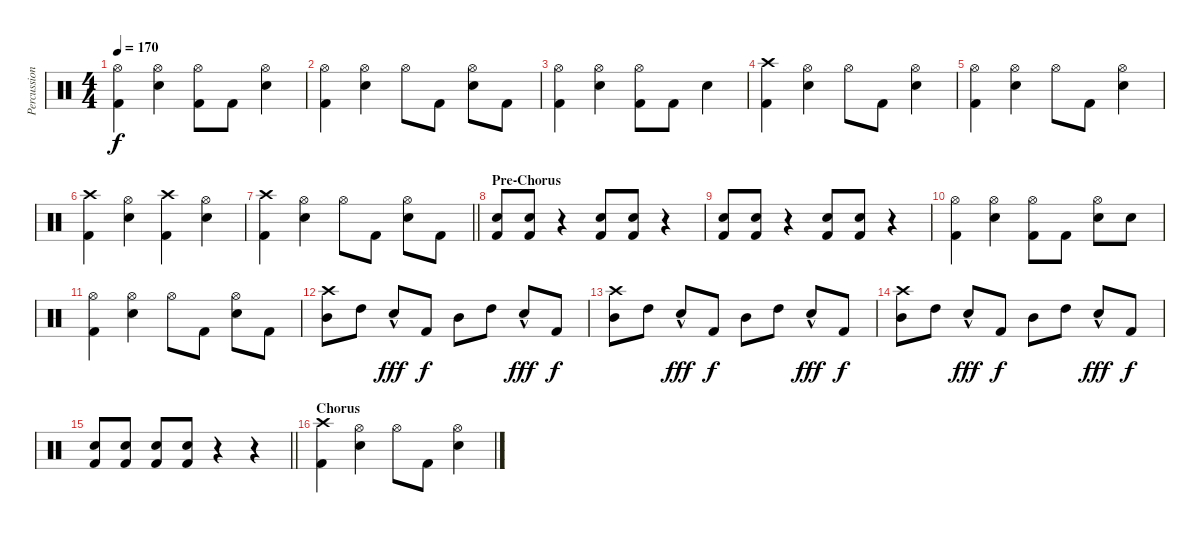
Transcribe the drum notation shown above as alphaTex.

\track ("Percussion" "Percussion") {instrument percussion}
\staff {score}
\articulation defaults
\ts (4 4)
\tempo 170
\clef neutral
\ks c
("Hi-Hat (open)" "Kick (hit) 2").4{dy f} ("Hi-Hat (open)" "Snare (hit) 2").4 ("Hi-Hat (open)" "Kick (hit) 2").8 "Kick (hit) 2".8 ("Hi-Hat (open)" "Snare (hit) 2").4 |
("Hi-Hat (open)" "Kick (hit) 2").4 ("Hi-Hat (open)" "Snare (hit) 2").4 "Hi-Hat (open)".8 "Kick (hit) 2".8 ("Hi-Hat (open)" "Snare (hit) 2").8 "Kick (hit) 2".8 |
("Hi-Hat (open)" "Kick (hit) 2").4 ("Hi-Hat (open)" "Snare (hit) 2").4 ("Hi-Hat (open)" "Kick (hit) 2").8 "Kick (hit) 2".8 "Snare (hit) 2".4 |
("Crash high (hit)" "Kick (hit) 2").4 ("Hi-Hat (open)" "Snare (hit) 2").4 "Hi-Hat (open)".8 "Kick (hit) 2".8 ("Hi-Hat (open)" "Snare (hit) 2").4 |
("Hi-Hat (open)" "Kick (hit) 2").4 ("Hi-Hat (open)" "Snare (hit) 2").4 "Hi-Hat (open)".8 "Kick (hit) 2".8 ("Hi-Hat (open)" "Snare (hit) 2").4 |
("Crash high (hit)" "Kick (hit) 2").4 ("Hi-Hat (open)" "Snare (hit) 2").4 ("Crash high (hit)" "Kick (hit) 2").4 ("Hi-Hat (open)" "Snare (hit) 2").4 |
\barLineRight lightlight
("Crash high (hit)" "Kick (hit) 2").4 ("Hi-Hat (open)" "Snare (hit) 2").4 "Hi-Hat (open)".8 "Kick (hit) 2".8 ("Hi-Hat (open)" "Snare (hit) 2").8 "Kick (hit) 2".8 |
\section ("" "Pre-Chorus")
("Snare (hit) 2" "Kick (hit) 2").8 ("Snare (hit) 2" "Kick (hit) 2").8 r.4 ("Snare (hit) 2" "Kick (hit) 2").8 ("Snare (hit) 2" "Kick (hit) 2").8 r.4 |
("Snare (hit) 2" "Kick (hit) 2").8 ("Snare (hit) 2" "Kick (hit) 2").8 r.4 ("Snare (hit) 2" "Kick (hit) 2").8 ("Snare (hit) 2" "Kick (hit) 2").8 r.4 |
("Hi-Hat (open)" "Kick (hit) 2").4 ("Hi-Hat (open)" "Snare (hit) 2").4 ("Hi-Hat (open)" "Kick (hit) 2").8 "Kick (hit) 2".8 ("Hi-Hat (open)" "Snare (hit) 2").8 "Snare (hit) 2".8 |
("Hi-Hat (open)" "Kick (hit) 2").4 ("Hi-Hat (open)" "Snare (hit) 2").4 "Hi-Hat (open)".8 "Kick (hit) 2".8 ("Hi-Hat (open)" "Snare (hit) 2").8 "Kick (hit) 2".8 |
("Crash high (hit)" "Mid Tom (hit)").8 "High Tom (hit)".8 "Snare (hit) 2"{hac}.8{dy fff} "Kick (hit) 2".8{dy f} "Mid Tom (hit)".8 "High Tom (hit)".8 "Snare (hit) 2"{hac}.8{dy fff} "Kick (hit) 2".8{dy f} |
("Crash high (hit)" "Mid Tom (hit)").8 "High Tom (hit)".8 "Snare (hit) 2"{hac}.8{dy fff} "Kick (hit) 2".8{dy f} "Mid Tom (hit)".8 "High Tom (hit)".8 "Snare (hit) 2"{hac}.8{dy fff} "Kick (hit) 2".8{dy f} |
("Crash high (hit)" "Mid Tom (hit)").8 "High Tom (hit)".8 "Snare (hit) 2"{hac}.8{dy fff} "Kick (hit) 2".8{dy f} "Mid Tom (hit)".8 "High Tom (hit)".8 "Snare (hit) 2"{hac}.8{dy fff} "Kick (hit) 2".8{dy f} |
\barLineRight lightlight
("Snare (hit) 2" "Kick (hit) 2").8 ("Snare (hit) 2" "Kick (hit) 2").8 ("Snare (hit) 2" "Kick (hit) 2").8 ("Snare (hit) 2" "Kick (hit) 2").8 r.4 r.4 |
\section ("" "Chorus")
("Crash high (hit)" "Kick (hit) 2").4 ("Hi-Hat (open)" "Snare (hit) 2").4 "Hi-Hat (open)".8 "Kick (hit) 2".8 ("Hi-Hat (open)" "Snare (hit) 2").4
